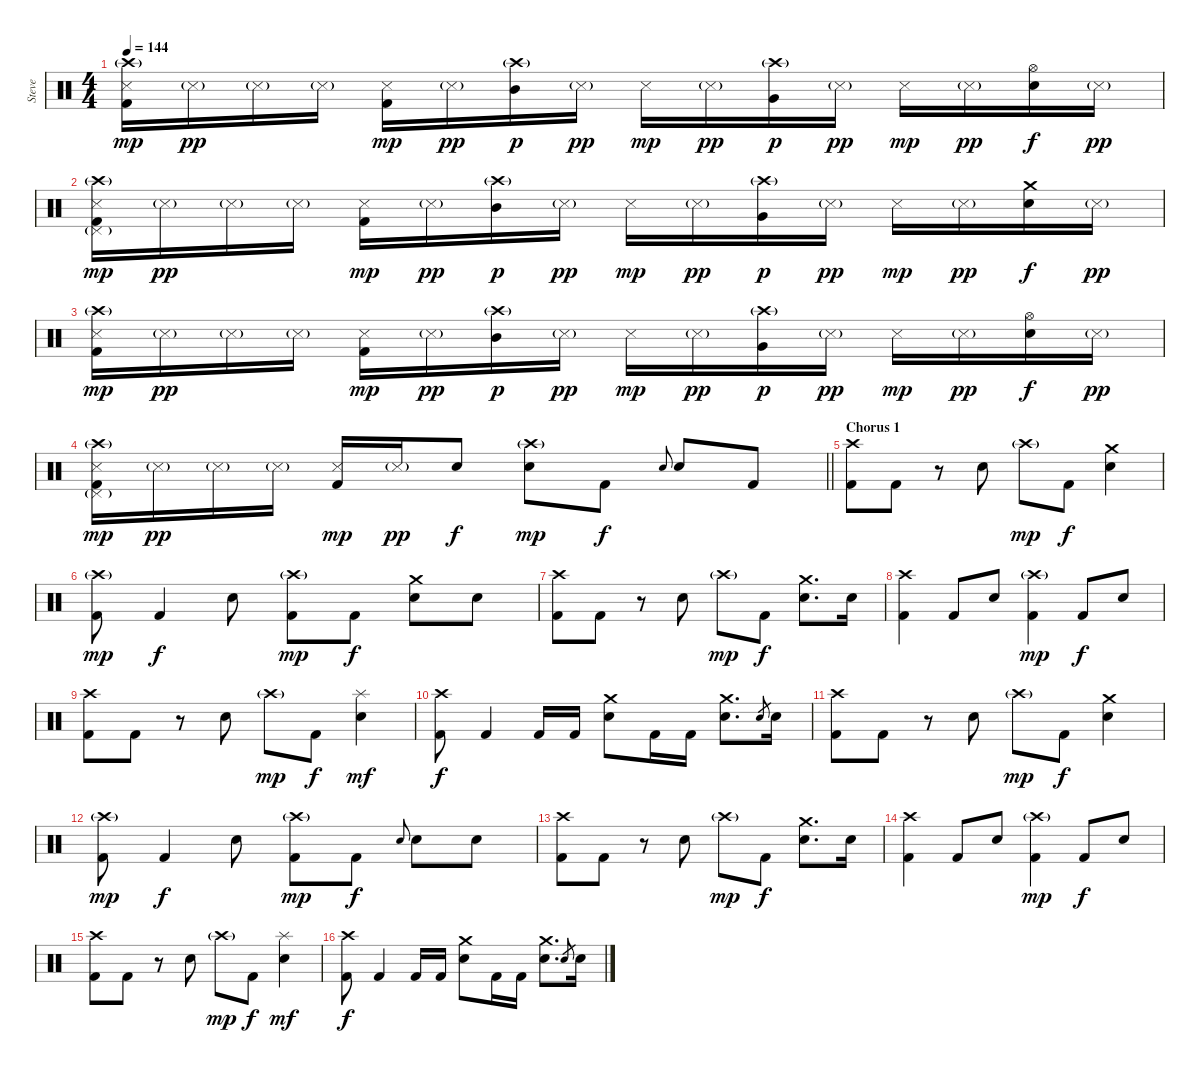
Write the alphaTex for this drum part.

\track ("Steve" "Steve") {instrument percussion}
\staff {score}
\articulation defaults
\ts (4 4)
\tempo 144
\clef neutral
\ks c
("Crash high (hit)"{g} "Snare (side stick) 3" "Kick (hit) 2").16{dy mp} "Snare (side stick) 3"{g}.16{dy pp} "Snare (side stick) 3"{g}.16 "Snare (side stick) 3"{g}.16 ("Snare (side stick) 3" "Kick (hit) 2").16{dy mp} "Snare (side stick) 3"{g}.16{dy pp} ("Crash high (hit)"{g} "Mid Tom (hit)").16{dy p} "Snare (side stick) 3"{g}.16{dy pp} "Snare (side stick) 3".16{dy mp} "Snare (side stick) 3"{g}.16{dy pp} ("Crash high (hit)"{g} "Very Low Tom (hit)").16{dy p} "Snare (side stick) 3"{g}.16{dy pp} "Snare (side stick) 3".16{dy mp} "Snare (side stick) 3"{g}.16{dy pp} ("Hi-Hat (open)" "Electric Snare (hit)").16{dy f} "Snare (side stick) 3"{g}.16{dy pp} |
("Crash high (hit)"{g} "Snare (side stick) 3" "Pedal Hi-Hat (hit)"{g} "Kick (hit) 2").16{dy mp} "Snare (side stick) 3"{g}.16{dy pp} "Snare (side stick) 3"{g}.16 "Snare (side stick) 3"{g}.16 ("Snare (side stick) 3" "Kick (hit) 2").16{dy mp} "Snare (side stick) 3"{g}.16{dy pp} ("Crash high (hit)"{g} "Mid Tom (hit)").16{dy p} "Snare (side stick) 3"{g}.16{dy pp} "Snare (side stick) 3".16{dy mp} "Snare (side stick) 3"{g}.16{dy pp} ("Crash high (hit)"{g} "Very Low Tom (hit)").16{dy p} "Snare (side stick) 3"{g}.16{dy pp} "Snare (side stick) 3".16{dy mp} "Snare (side stick) 3"{g}.16{dy pp} ("Crash medium (hit)" "Electric Snare (hit)").16{dy f} "Snare (side stick) 3"{g}.16{dy pp} |
("Crash high (hit)"{g} "Snare (side stick) 3" "Kick (hit) 2").16{dy mp} "Snare (side stick) 3"{g}.16{dy pp} "Snare (side stick) 3"{g}.16 "Snare (side stick) 3"{g}.16 ("Snare (side stick) 3" "Kick (hit) 2").16{dy mp} "Snare (side stick) 3"{g}.16{dy pp} ("Crash high (hit)"{g} "Mid Tom (hit)").16{dy p} "Snare (side stick) 3"{g}.16{dy pp} "Snare (side stick) 3".16{dy mp} "Snare (side stick) 3"{g}.16{dy pp} ("Crash high (hit)"{g} "Very Low Tom (hit)").16{dy p} "Snare (side stick) 3"{g}.16{dy pp} "Snare (side stick) 3".16{dy mp} "Snare (side stick) 3"{g}.16{dy pp} ("Hi-Hat (open)" "Electric Snare (hit)").16{dy f} "Snare (side stick) 3"{g}.16{dy pp} |
\barLineRight lightlight
("Crash high (hit)"{g} "Snare (side stick) 3" "Pedal Hi-Hat (hit)"{g} "Kick (hit) 2").16{dy mp} "Snare (side stick) 3"{g}.16{dy pp} "Snare (side stick) 3"{g}.16 "Snare (side stick) 3"{g}.16 ("Snare (side stick) 3" "Kick (hit) 2").16{dy mp} "Snare (side stick) 3"{g}.16{dy pp} "Electric Snare (hit)".8{dy f} ("Crash high (hit)"{g} "Electric Snare (hit)").8{dy mp} "Kick (hit) 2".8{dy f} "Electric Snare (hit)".8{gr onbeat} "Electric Snare (hit)".8 "Kick (hit) 2".8 |
\section ("" "Chorus 1")
("Crash high (hit)" "Kick (hit) 2").8 "Kick (hit) 2".8 r.8 "Electric Snare (hit)".8 "Crash high (hit)"{g}.8{dy mp} "Kick (hit) 2".8{dy f} ("Crash medium (hit)" "Electric Snare (hit)").4 |
("Crash high (hit)"{g} "Kick (hit) 2").8{dy mp} "Kick (hit) 2".4{dy f} "Electric Snare (hit)".8 ("Crash high (hit)"{g} "Kick (hit) 2").8{dy mp} "Kick (hit) 2".8{dy f} ("Crash medium (hit)" "Electric Snare (hit)").8 "Electric Snare (hit)".8 |
("Crash high (hit)" "Kick (hit) 2").8 "Kick (hit) 2".8 r.8 "Electric Snare (hit)".8 "Crash high (hit)"{g}.8{dy mp} "Kick (hit) 2".8{dy f} ("Crash medium (hit)" "Electric Snare (hit)").8{d} "Electric Snare (hit)".16 |
("Crash high (hit)" "Kick (hit) 2").4 "Kick (hit) 2".8 "Electric Snare (hit)".8 ("Crash high (hit)"{g} "Kick (hit) 2").4{dy mp} "Kick (hit) 2".8{dy f} "Electric Snare (hit)".8 |
("Crash high (hit)" "Kick (hit) 2").8 "Kick (hit) 2".8 r.8 "Electric Snare (hit)".8 "Crash high (hit)"{g}.8{dy mp} "Kick (hit) 2".8{dy f} ("Splash (hit)" "Electric Snare (hit)").4{dy mf} |
("Crash high (hit)" "Kick (hit) 2").8{dy f} "Kick (hit) 2".4 "Kick (hit) 2".16 "Kick (hit) 2".16 ("Crash medium (hit)" "Electric Snare (hit)").8 "Kick (hit) 2".16 "Kick (hit) 2".16 ("Crash medium (hit)" "Electric Snare (hit)").8{d} "Electric Snare (hit)".8{gr} "Electric Snare (hit)".16 |
("Crash high (hit)" "Kick (hit) 2").8 "Kick (hit) 2".8 r.8 "Electric Snare (hit)".8 "Crash high (hit)"{g}.8{dy mp} "Kick (hit) 2".8{dy f} ("Crash medium (hit)" "Electric Snare (hit)").4 |
("Crash high (hit)"{g} "Kick (hit) 2").8{dy mp} "Kick (hit) 2".4{dy f} "Electric Snare (hit)".8 ("Crash high (hit)"{g} "Kick (hit) 2").8{dy mp} "Kick (hit) 2".8{dy f} "Electric Snare (hit)".8{gr onbeat} "Electric Snare (hit)".8 "Electric Snare (hit)".8 |
("Crash high (hit)" "Kick (hit) 2").8 "Kick (hit) 2".8 r.8 "Electric Snare (hit)".8 "Crash high (hit)"{g}.8{dy mp} "Kick (hit) 2".8{dy f} ("Crash medium (hit)" "Electric Snare (hit)").8{d} "Electric Snare (hit)".16 |
("Crash high (hit)" "Kick (hit) 2").4 "Kick (hit) 2".8 "Electric Snare (hit)".8 ("Crash high (hit)"{g} "Kick (hit) 2").4{dy mp} "Kick (hit) 2".8{dy f} "Electric Snare (hit)".8 |
("Crash high (hit)" "Kick (hit) 2").8 "Kick (hit) 2".8 r.8 "Electric Snare (hit)".8 "Crash high (hit)"{g}.8{dy mp} "Kick (hit) 2".8{dy f} ("Splash (hit)" "Electric Snare (hit)").4{dy mf} |
("Crash high (hit)" "Kick (hit) 2").8{dy f} "Kick (hit) 2".4 "Kick (hit) 2".16 "Kick (hit) 2".16 ("Crash medium (hit)" "Electric Snare (hit)").8 "Kick (hit) 2".16 "Kick (hit) 2".16 ("Crash medium (hit)" "Electric Snare (hit)").8{d} "Electric Snare (hit)".8{gr} "Electric Snare (hit)".16
